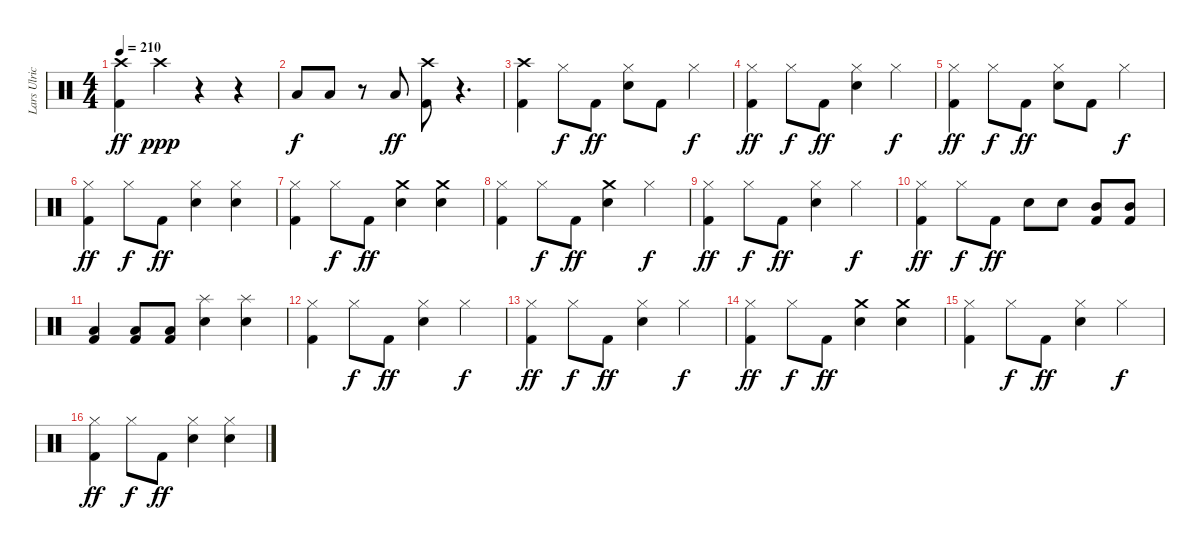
\track ("Lars Ulrich" "Lars Ulric") {instrument percussion}
\staff {score}
\articulation defaults
\ts (4 4)
\tempo 210
\clef neutral
\ks c
("Crash high (hit)" "Kick (hit) 2").4{dy ff} "Crash high (hit)".4{dy ppp volume 0} r.4 r.4 |
"Low Tom (hit)".8{dy f volume 14} "Low Tom (hit)".8 r.8 "Low Tom (hit)".8{dy ff} ("Crash high (hit)" "Kick (hit) 2").8 r.4{d} |
("Crash high (hit)" "Kick (hit) 2").4 "Hi-Hat (closed)".8{dy f} "Kick (hit) 2".8{dy ff} ("Hi-Hat (closed)" "Snare (hit) 2").8 "Kick (hit) 2".8 "Hi-Hat (closed)".4{dy f} |
("Hi-Hat (closed)" "Kick (hit) 2").4{dy ff} "Hi-Hat (closed)".8{dy f} "Kick (hit) 2".8{dy ff} ("Hi-Hat (closed)" "Snare (hit) 2").4 "Hi-Hat (closed)".4{dy f} |
("Hi-Hat (closed)" "Kick (hit) 2").4{dy ff} "Hi-Hat (closed)".8{dy f} "Kick (hit) 2".8{dy ff} ("Hi-Hat (closed)" "Snare (hit) 2").8 "Kick (hit) 2".8 "Hi-Hat (closed)".4{dy f} |
("Hi-Hat (closed)" "Kick (hit) 2").4{dy ff} "Hi-Hat (closed)".8{dy f} "Kick (hit) 2".8{dy ff} ("Hi-Hat (closed)" "Snare (hit) 2").4 ("Hi-Hat (closed)" "Snare (hit) 2").4 |
("Hi-Hat (closed)" "Kick (hit) 2").4 "Hi-Hat (closed)".8{dy f} "Kick (hit) 2".8{dy ff} ("Crash medium (hit)" "Snare (hit) 2").4 ("Crash medium (hit)" "Snare (hit) 2").4 |
("Hi-Hat (closed)" "Kick (hit) 2").4 "Hi-Hat (closed)".8{dy f} "Kick (hit) 2".8{dy ff} ("Crash medium (hit)" "Snare (hit) 2").4 "Hi-Hat (closed)".4{dy f} |
("Hi-Hat (closed)" "Kick (hit) 2").4{dy ff} "Hi-Hat (closed)".8{dy f} "Kick (hit) 2".8{dy ff} ("Hi-Hat (closed)" "Snare (hit) 2").4 "Hi-Hat (closed)".4{dy f} |
("Hi-Hat (closed)" "Kick (hit) 2").4{dy ff} "Hi-Hat (closed)".8{dy f} "Kick (hit) 2".8{dy ff} "Snare (hit) 2".8 "Snare (hit) 2".8 ("Mid Tom (hit)" "Kick (hit) 2").8 ("Mid Tom (hit)" "Kick (hit) 2").8 |
("Low Tom (hit)" "Kick (hit) 2").4 ("Low Tom (hit)" "Kick (hit) 2").8 ("Low Tom (hit)" "Kick (hit) 2").8 ("Splash (hit)" "Snare (hit) 2").4 ("Splash (hit)" "Snare (hit) 2").4 |
("Hi-Hat (closed)" "Kick (hit) 2").4 "Hi-Hat (closed)".8{dy f} "Kick (hit) 2".8{dy ff} ("Hi-Hat (closed)" "Snare (hit) 2").4 "Hi-Hat (closed)".4{dy f} |
("Hi-Hat (closed)" "Kick (hit) 2").4{dy ff} "Hi-Hat (closed)".8{dy f} "Kick (hit) 2".8{dy ff} ("Hi-Hat (closed)" "Snare (hit) 2").4 "Hi-Hat (closed)".4{dy f} |
("Hi-Hat (closed)" "Kick (hit) 2").4{dy ff} "Hi-Hat (closed)".8{dy f} "Kick (hit) 2".8{dy ff} ("Crash medium (hit)" "Snare (hit) 2").4 ("Crash medium (hit)" "Snare (hit) 2").4 |
("Hi-Hat (closed)" "Kick (hit) 2").4 "Hi-Hat (closed)".8{dy f} "Kick (hit) 2".8{dy ff} ("Hi-Hat (closed)" "Snare (hit) 2").4 "Hi-Hat (closed)".4{dy f} |
("Hi-Hat (closed)" "Kick (hit) 2").4{dy ff} "Hi-Hat (closed)".8{dy f} "Kick (hit) 2".8{dy ff} ("Hi-Hat (closed)" "Snare (hit) 2").4 ("Hi-Hat (closed)" "Snare (hit) 2").4
